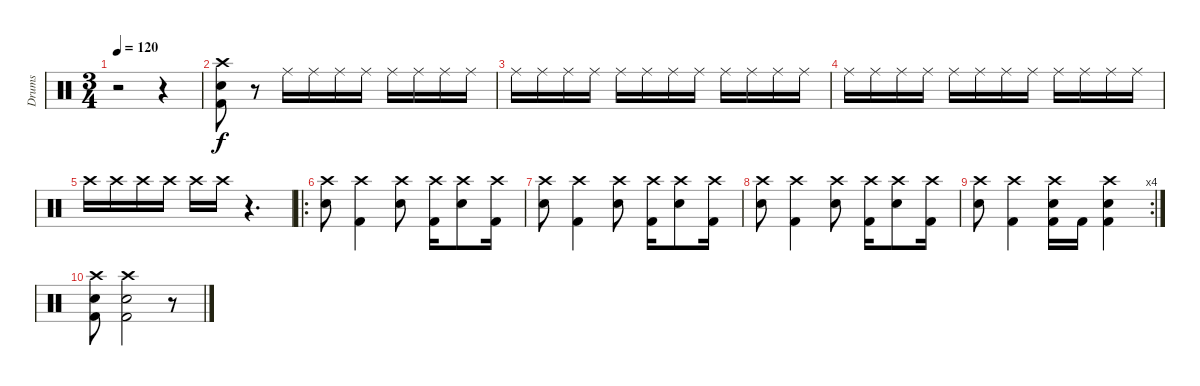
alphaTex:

\track ("Drums" "Drums") {instrument percussion}
\staff {score}
\articulation defaults
\ts (3 4)
\tempo 120
\clef neutral
\ks c
r.2{dy f} r.4 |
("Crash high (hit)" "Snare (hit) 2" "Kick (hit) 2").8 r.8{volume 0} "Ride (middle)".16{volume 13} "Ride (middle)".16 "Ride (middle)".16 "Ride (middle)".16 "Ride (middle)".16 "Ride (middle)".16 "Ride (middle)".16 "Ride (middle)".16 |
"Ride (middle)".16 "Ride (middle)".16 "Ride (middle)".16 "Ride (middle)".16 "Ride (middle)".16 "Ride (middle)".16 "Ride (middle)".16 "Ride (middle)".16 "Ride (middle)".16 "Ride (middle)".16 "Ride (middle)".16 "Ride (middle)".16 |
"Ride (middle)".16 "Ride (middle)".16 "Ride (middle)".16 "Ride (middle)".16 "Ride (middle)".16 "Ride (middle)".16 "Ride (middle)".16 "Ride (middle)".16 "Ride (middle)".16 "Ride (middle)".16 "Ride (middle)".16 "Ride (middle)".16 |
"Crash high (hit)".16 "Crash high (hit)".16 "Crash high (hit)".16 "Crash high (hit)".16 "Crash high (hit)".16 "Crash high (hit)".16 r.4{d} |
\ro
("Crash high (hit)" "Snare (hit) 2").8 ("Crash high (hit)" "Kick (hit) 2").4 ("Crash high (hit)" "Snare (hit) 2").8 ("Crash high (hit)" "Kick (hit) 2").16 ("Crash high (hit)" "Snare (hit) 2").8 ("Crash high (hit)" "Kick (hit) 2").16 |
("Crash high (hit)" "Snare (hit) 2").8 ("Crash high (hit)" "Kick (hit) 2").4 ("Crash high (hit)" "Snare (hit) 2").8 ("Crash high (hit)" "Kick (hit) 2").16 ("Crash high (hit)" "Snare (hit) 2").8 ("Crash high (hit)" "Kick (hit) 2").16 |
("Crash high (hit)" "Snare (hit) 2").8 ("Crash high (hit)" "Kick (hit) 2").4 ("Crash high (hit)" "Snare (hit) 2").8 ("Crash high (hit)" "Kick (hit) 2").16 ("Crash high (hit)" "Snare (hit) 2").8 ("Crash high (hit)" "Kick (hit) 2").16 |
\rc 4
("Crash high (hit)" "Snare (hit) 2").8 ("Crash high (hit)" "Kick (hit) 2").4 ("Crash high (hit)" "Snare (hit) 2" "Kick (hit) 2").16 "Kick (hit) 2".16 ("Crash high (hit)" "Snare (hit) 2" "Kick (hit) 2").4 |
("Crash high (hit)" "Snare (hit) 2" "Kick (hit) 2").8 ("Crash high (hit)" "Snare (hit) 2" "Kick (hit) 2").2 r.8
